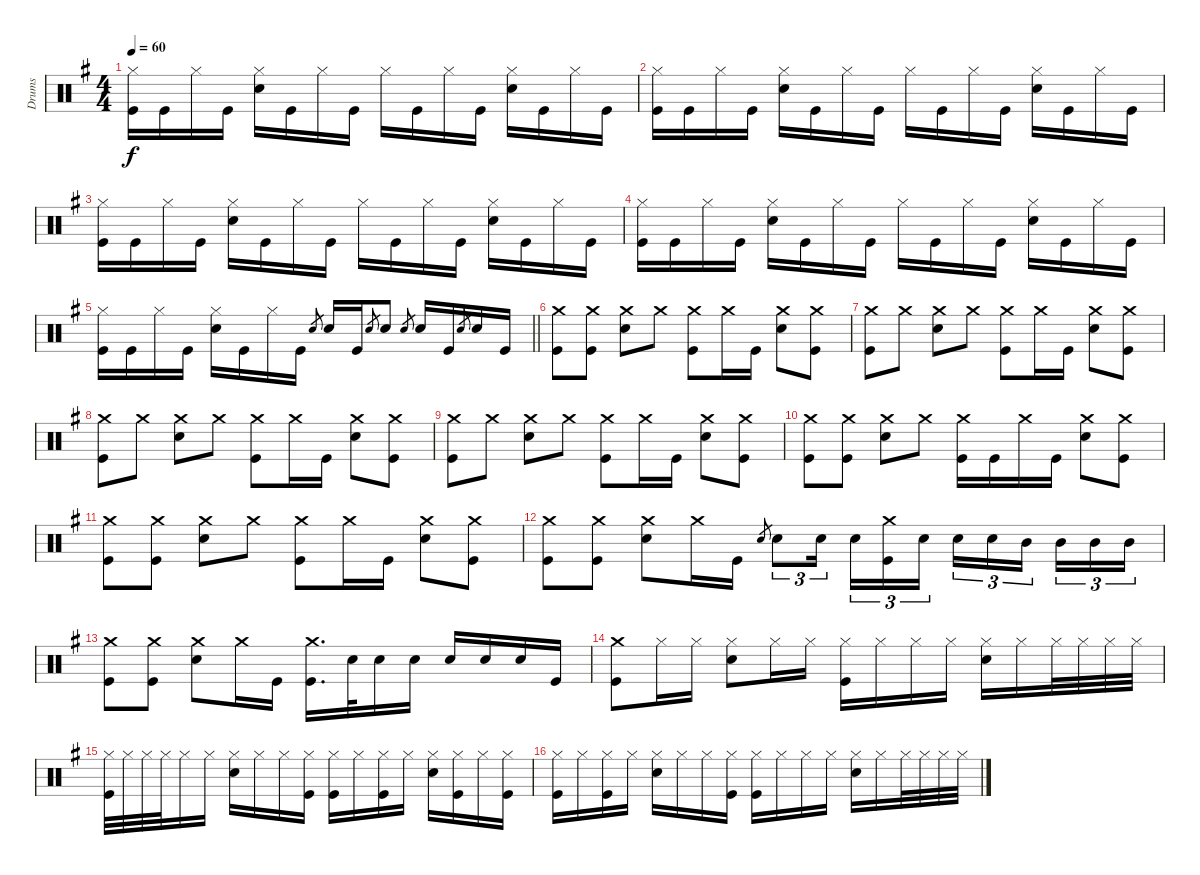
\track ("Drums" "Drums") {instrument percussion}
\staff {score}
\articulation defaults
\ts (4 4)
\tempo 60
\clef neutral
\ks g
("Kick (hit)" "Hi-Hat (closed)").16{dy f} "Kick (hit)".16 "Hi-Hat (closed)".16 "Kick (hit)".16 ("Electric Snare (hit)" "Hi-Hat (closed)").16 "Kick (hit)".16 "Hi-Hat (closed)".16 "Kick (hit)".16 "Hi-Hat (closed)".16 "Kick (hit)".16 "Hi-Hat (closed)".16 "Kick (hit)".16 ("Electric Snare (hit)" "Hi-Hat (closed)").16 "Kick (hit)".16 "Hi-Hat (closed)".16 "Kick (hit)".16 |
("Kick (hit)" "Hi-Hat (closed)").16 "Kick (hit)".16 "Hi-Hat (closed)".16 "Kick (hit)".16 ("Electric Snare (hit)" "Hi-Hat (closed)").16 "Kick (hit)".16 "Hi-Hat (closed)".16 "Kick (hit)".16 "Hi-Hat (closed)".16 "Kick (hit)".16 "Hi-Hat (closed)".16 "Kick (hit)".16 ("Electric Snare (hit)" "Hi-Hat (closed)").16 "Kick (hit)".16 "Hi-Hat (closed)".16 "Kick (hit)".16 |
("Kick (hit)" "Hi-Hat (closed)").16 "Kick (hit)".16 "Hi-Hat (closed)".16 "Kick (hit)".16 ("Electric Snare (hit)" "Hi-Hat (closed)").16 "Kick (hit)".16 "Hi-Hat (closed)".16 "Kick (hit)".16 "Hi-Hat (closed)".16 "Kick (hit)".16 "Hi-Hat (closed)".16 "Kick (hit)".16 ("Electric Snare (hit)" "Hi-Hat (closed)").16 "Kick (hit)".16 "Hi-Hat (closed)".16 "Kick (hit)".16 |
("Kick (hit)" "Hi-Hat (closed)").16 "Kick (hit)".16 "Hi-Hat (closed)".16 "Kick (hit)".16 ("Electric Snare (hit)" "Hi-Hat (closed)").16 "Kick (hit)".16 "Hi-Hat (closed)".16 "Kick (hit)".16 "Hi-Hat (closed)".16 "Kick (hit)".16 "Hi-Hat (closed)".16 "Kick (hit)".16 ("Electric Snare (hit)" "Hi-Hat (closed)").16 "Kick (hit)".16 "Hi-Hat (closed)".16 "Kick (hit)".16 |
\barLineRight lightlight
("Kick (hit)" "Hi-Hat (closed)").16 "Kick (hit)".16 "Hi-Hat (closed)".16 "Kick (hit)".16 ("Electric Snare (hit)" "Hi-Hat (closed)").16 "Kick (hit)".16 "Hi-Hat (closed)".16 "Kick (hit)".16 "Electric Snare (hit)".8{gr} "Electric Snare (hit)".16 "Kick (hit)".16 "Electric Snare (hit)".8{gr} "Electric Snare (hit)".8 "Electric Snare (hit)".8{gr} "Electric Snare (hit)".16 "Kick (hit)".16 "Electric Snare (hit)".8{gr} "Electric Snare (hit)".16 "Kick (hit)".16 |
("Kick (hit)" "Crash medium (hit)").8 ("Kick (hit)" "Crash medium (hit)").8 ("Electric Snare (hit)" "Crash medium (hit)").8 "Crash medium (hit)".8 ("Kick (hit)" "Crash medium (hit)").8 "Crash medium (hit)".16 "Kick (hit)".16 ("Electric Snare (hit)" "Crash medium (hit)").8 ("Kick (hit)" "Crash medium (hit)").8 |
("Kick (hit)" "Crash medium (hit)").8 "Crash medium (hit)".8 ("Electric Snare (hit)" "Crash medium (hit)").8 "Crash medium (hit)".8 ("Kick (hit)" "Crash medium (hit)").8 "Crash medium (hit)".16 "Kick (hit)".16 ("Electric Snare (hit)" "Crash medium (hit)").8 ("Kick (hit)" "Crash medium (hit)").8 |
("Kick (hit)" "Crash medium (hit)").8 "Crash medium (hit)".8 ("Electric Snare (hit)" "Crash medium (hit)").8 "Crash medium (hit)".8 ("Kick (hit)" "Crash medium (hit)").8 "Crash medium (hit)".16 "Kick (hit)".16 ("Electric Snare (hit)" "Crash medium (hit)").8 ("Kick (hit)" "Crash medium (hit)").8 |
("Kick (hit)" "Crash medium (hit)").8 "Crash medium (hit)".8 ("Electric Snare (hit)" "Crash medium (hit)").8 "Crash medium (hit)".8 ("Kick (hit)" "Crash medium (hit)").8 "Crash medium (hit)".16 "Kick (hit)".16 ("Electric Snare (hit)" "Crash medium (hit)").8 ("Kick (hit)" "Crash medium (hit)").8 |
("Kick (hit)" "Crash medium (hit)").8 ("Kick (hit)" "Crash medium (hit)").8 ("Electric Snare (hit)" "Crash medium (hit)").8 "Crash medium (hit)".8 ("Kick (hit)" "Crash medium (hit)").16 "Kick (hit)".16 "Crash medium (hit)".16 "Kick (hit)".16 ("Electric Snare (hit)" "Crash medium (hit)").8 ("Kick (hit)" "Crash medium (hit)").8 |
("Kick (hit)" "Crash medium (hit)").8 ("Kick (hit)" "Crash medium (hit)").8 ("Electric Snare (hit)" "Crash medium (hit)").8 "Crash medium (hit)".8 ("Kick (hit)" "Crash medium (hit)").8 "Crash medium (hit)".16 "Kick (hit)".16 ("Electric Snare (hit)" "Crash medium (hit)").8 ("Kick (hit)" "Crash medium (hit)").8 |
("Kick (hit)" "Crash medium (hit)").8 ("Kick (hit)" "Crash medium (hit)").8 ("Electric Snare (hit)" "Crash medium (hit)").8 "Crash medium (hit)".16 "Kick (hit)".16 "Electric Snare (hit)".8{gr} "Electric Snare (hit)".8{tu (3 2)} "Electric Snare (hit)".16{tu (3 2) beam splitsecondary} "Electric Snare (hit)".16{tu (3 2)} ("Kick (hit)" "Crash medium (hit)").16{tu (3 2)} "Electric Snare (hit)".16{tu (3 2)} "Electric Snare (hit)".16{tu (3 2)} "Electric Snare (hit)".16{tu (3 2)} "Mid Tom (hit)".16{tu (3 2) beam splitsecondary} "Mid Tom (hit)".16{tu (3 2)} "Mid Tom (hit)".16{tu (3 2)} "Mid Tom (hit)".16{tu (3 2)} |
("Kick (hit)" "Crash medium (hit)").8 ("Kick (hit)" "Crash medium (hit)").8 ("Electric Snare (hit)" "Crash medium (hit)").8 "Crash medium (hit)".16 "Kick (hit)".16 ("Kick (hit)" "Crash medium (hit)").16{d} "Electric Snare (hit)".32 "Electric Snare (hit)".16 "Electric Snare (hit)".16 "Electric Snare (hit)".16 "Electric Snare (hit)".16 "Electric Snare (hit)".16 "Kick (hit)".16 |
("Kick (hit)" "Crash medium (hit)").8 "Hi-Hat (closed)".16 "Hi-Hat (closed)".16 ("Electric Snare (hit)" "Hi-Hat (closed)").8 "Hi-Hat (closed)".16 "Hi-Hat (closed)".16 ("Kick (hit)" "Hi-Hat (closed)").16 "Hi-Hat (closed)".16 "Hi-Hat (closed)".16 "Hi-Hat (closed)".16 ("Electric Snare (hit)" "Hi-Hat (closed)").16 "Hi-Hat (closed)".16 "Hi-Hat (closed)".32 "Hi-Hat (closed)".32 "Hi-Hat (closed)".32 "Hi-Hat (closed)".32 |
("Kick (hit)" "Hi-Hat (closed)").32 "Hi-Hat (closed)".32 "Hi-Hat (closed)".32 "Hi-Hat (closed)".32 "Hi-Hat (closed)".16 "Hi-Hat (closed)".16 ("Electric Snare (hit)" "Hi-Hat (closed)").16 "Hi-Hat (closed)".16 "Hi-Hat (closed)".16 ("Kick (hit)" "Hi-Hat (closed)").16 ("Kick (hit)" "Hi-Hat (closed)").16 "Hi-Hat (closed)".16 ("Kick (hit)" "Hi-Hat (closed)").16 "Hi-Hat (closed)".16 ("Electric Snare (hit)" "Hi-Hat (closed)").16 ("Kick (hit)" "Hi-Hat (closed)").16 "Hi-Hat (closed)".16 ("Kick (hit)" "Hi-Hat (closed)").16 |
("Kick (hit)" "Hi-Hat (closed)").16 "Hi-Hat (closed)".16 ("Kick (hit)" "Hi-Hat (closed)").16 "Hi-Hat (closed)".16 ("Electric Snare (hit)" "Hi-Hat (closed)").16 "Hi-Hat (closed)".16 "Hi-Hat (closed)".16 ("Kick (hit)" "Hi-Hat (closed)").16 ("Kick (hit)" "Hi-Hat (closed)").16 "Hi-Hat (closed)".16 "Hi-Hat (closed)".16 "Hi-Hat (closed)".16 ("Electric Snare (hit)" "Hi-Hat (closed)").16 "Hi-Hat (closed)".16 "Hi-Hat (closed)".32 "Hi-Hat (closed)".32 "Hi-Hat (closed)".32 "Hi-Hat (closed)".32
